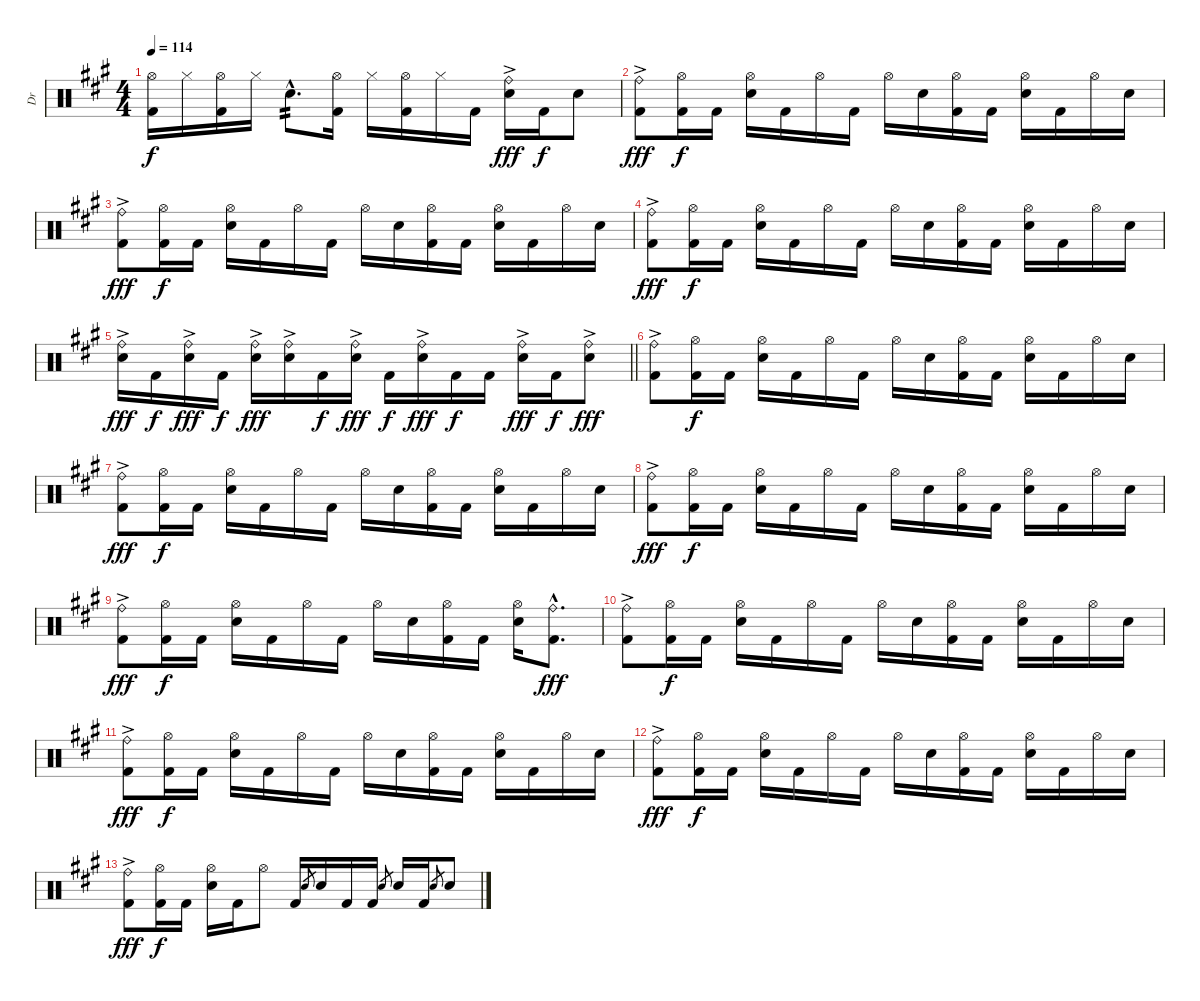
\track ("Dr" "Dr") {instrument percussion}
\staff {score}
\articulation defaults
\ts (4 4)
\tempo 114
\clef neutral
\ks a
("Hi-Hat (open)" "Kick (hit) 2").16{dy f} "Hi-Hat (closed)".16 ("Hi-Hat (open)" "Kick (hit) 2").16 "Hi-Hat (closed)".16 "Electric Snare (hit)"{hac}.8{d tp 2} ("Hi-Hat (open)" "Kick (hit) 2").16 "Hi-Hat (closed)".16 ("Hi-Hat (open)" "Kick (hit) 2").16 "Hi-Hat (closed)".16 "Kick (hit) 2".16 ("Ride (bell)"{ac} "Electric Snare (hit)"{ac}).16{dy fff} "Kick (hit) 2".16{dy f} "Electric Snare (hit)".8 |
("Ride (bell)"{ac} "Kick (hit) 2"{ac}).8{dy fff} ("Hi-Hat (open)" "Kick (hit) 2").16{dy f} "Kick (hit) 2".16 ("Hi-Hat (open)" "Electric Snare (hit)").16 "Kick (hit) 2".16 "Hi-Hat (open)".16 "Kick (hit) 2".16 "Hi-Hat (open)".16 "Electric Snare (hit)".16 ("Hi-Hat (open)" "Kick (hit) 2").16 "Kick (hit) 2".16 ("Hi-Hat (open)" "Electric Snare (hit)").16 "Kick (hit) 2".16 "Hi-Hat (open)".16 "Electric Snare (hit)".16 |
("Ride (bell)"{ac} "Kick (hit) 2"{ac}).8{dy fff} ("Hi-Hat (open)" "Kick (hit) 2").16{dy f} "Kick (hit) 2".16 ("Hi-Hat (open)" "Electric Snare (hit)").16 "Kick (hit) 2".16 "Hi-Hat (open)".16 "Kick (hit) 2".16 "Hi-Hat (open)".16 "Electric Snare (hit)".16 ("Hi-Hat (open)" "Kick (hit) 2").16 "Kick (hit) 2".16 ("Hi-Hat (open)" "Electric Snare (hit)").16 "Kick (hit) 2".16 "Hi-Hat (open)".16 "Electric Snare (hit)".16 |
("Ride (bell)"{ac} "Kick (hit) 2"{ac}).8{dy fff} ("Hi-Hat (open)" "Kick (hit) 2").16{dy f} "Kick (hit) 2".16 ("Hi-Hat (open)" "Electric Snare (hit)").16 "Kick (hit) 2".16 "Hi-Hat (open)".16 "Kick (hit) 2".16 "Hi-Hat (open)".16 "Electric Snare (hit)".16 ("Hi-Hat (open)" "Kick (hit) 2").16 "Kick (hit) 2".16 ("Hi-Hat (open)" "Electric Snare (hit)").16 "Kick (hit) 2".16 "Hi-Hat (open)".16 "Electric Snare (hit)".16 |
\barLineRight lightlight
("Ride (bell)"{ac} "Electric Snare (hit)"{ac}).16{dy fff} "Kick (hit) 2".16{dy f} ("Ride (bell)"{ac} "Electric Snare (hit)"{ac}).16{dy fff} "Kick (hit) 2".16{dy f} ("Ride (bell)"{ac} "Electric Snare (hit)"{ac}).16{dy fff} ("Ride (bell)"{ac} "Electric Snare (hit)"{ac}).16 "Kick (hit) 2".16{dy f} ("Ride (bell)"{ac} "Electric Snare (hit)"{ac}).16{dy fff} "Kick (hit) 2".16{dy f} ("Ride (bell)"{ac} "Electric Snare (hit)"{ac}).16{dy fff} "Kick (hit) 2".16{dy f} "Kick (hit) 2".16 ("Ride (bell)"{ac} "Electric Snare (hit)"{ac}).16{dy fff} "Kick (hit) 2".16{dy f} ("Ride (bell)"{ac} "Electric Snare (hit)"{ac}).8{dy fff} |
("Ride (bell)"{ac} "Kick (hit) 2"{ac}).8 ("Hi-Hat (open)" "Kick (hit) 2").16{dy f} "Kick (hit) 2".16 ("Hi-Hat (open)" "Electric Snare (hit)").16 "Kick (hit) 2".16 "Hi-Hat (open)".16 "Kick (hit) 2".16 "Hi-Hat (open)".16 "Electric Snare (hit)".16 ("Hi-Hat (open)" "Kick (hit) 2").16 "Kick (hit) 2".16 ("Hi-Hat (open)" "Electric Snare (hit)").16 "Kick (hit) 2".16 "Hi-Hat (open)".16 "Electric Snare (hit)".16 |
("Ride (bell)"{ac} "Kick (hit) 2"{ac}).8{dy fff} ("Hi-Hat (open)" "Kick (hit) 2").16{dy f} "Kick (hit) 2".16 ("Hi-Hat (open)" "Electric Snare (hit)").16 "Kick (hit) 2".16 "Hi-Hat (open)".16 "Kick (hit) 2".16 "Hi-Hat (open)".16 "Electric Snare (hit)".16 ("Hi-Hat (open)" "Kick (hit) 2").16 "Kick (hit) 2".16 ("Hi-Hat (open)" "Electric Snare (hit)").16 "Kick (hit) 2".16 "Hi-Hat (open)".16 "Electric Snare (hit)".16 |
("Ride (bell)"{ac} "Kick (hit) 2"{ac}).8{dy fff} ("Hi-Hat (open)" "Kick (hit) 2").16{dy f} "Kick (hit) 2".16 ("Hi-Hat (open)" "Electric Snare (hit)").16 "Kick (hit) 2".16 "Hi-Hat (open)".16 "Kick (hit) 2".16 "Hi-Hat (open)".16 "Electric Snare (hit)".16 ("Hi-Hat (open)" "Kick (hit) 2").16 "Kick (hit) 2".16 ("Hi-Hat (open)" "Electric Snare (hit)").16 "Kick (hit) 2".16 "Hi-Hat (open)".16 "Electric Snare (hit)".16 |
("Ride (bell)"{ac} "Kick (hit) 2"{ac}).8{dy fff} ("Hi-Hat (open)" "Kick (hit) 2").16{dy f} "Kick (hit) 2".16 ("Hi-Hat (open)" "Electric Snare (hit)").16 "Kick (hit) 2".16 "Hi-Hat (open)".16 "Kick (hit) 2".16 "Hi-Hat (open)".16 "Electric Snare (hit)".16 ("Hi-Hat (open)" "Kick (hit) 2").16 "Kick (hit) 2".16 ("Hi-Hat (open)" "Electric Snare (hit)").16 ("Ride (bell)"{hac} "Kick (hit) 2"{hac}).8{d dy fff} |
("Ride (bell)"{ac} "Kick (hit) 2"{ac}).8 ("Hi-Hat (open)" "Kick (hit) 2").16{dy f} "Kick (hit) 2".16 ("Hi-Hat (open)" "Electric Snare (hit)").16 "Kick (hit) 2".16 "Hi-Hat (open)".16 "Kick (hit) 2".16 "Hi-Hat (open)".16 "Electric Snare (hit)".16 ("Hi-Hat (open)" "Kick (hit) 2").16 "Kick (hit) 2".16 ("Hi-Hat (open)" "Electric Snare (hit)").16 "Kick (hit) 2".16 "Hi-Hat (open)".16 "Electric Snare (hit)".16 |
("Ride (bell)"{ac} "Kick (hit) 2"{ac}).8{dy fff} ("Hi-Hat (open)" "Kick (hit) 2").16{dy f} "Kick (hit) 2".16 ("Hi-Hat (open)" "Electric Snare (hit)").16 "Kick (hit) 2".16 "Hi-Hat (open)".16 "Kick (hit) 2".16 "Hi-Hat (open)".16 "Electric Snare (hit)".16 ("Hi-Hat (open)" "Kick (hit) 2").16 "Kick (hit) 2".16 ("Hi-Hat (open)" "Electric Snare (hit)").16 "Kick (hit) 2".16 "Hi-Hat (open)".16 "Electric Snare (hit)".16 |
("Ride (bell)"{ac} "Kick (hit) 2"{ac}).8{dy fff} ("Hi-Hat (open)" "Kick (hit) 2").16{dy f} "Kick (hit) 2".16 ("Hi-Hat (open)" "Electric Snare (hit)").16 "Kick (hit) 2".16 "Hi-Hat (open)".16 "Kick (hit) 2".16 "Hi-Hat (open)".16 "Electric Snare (hit)".16 ("Hi-Hat (open)" "Kick (hit) 2").16 "Kick (hit) 2".16 ("Hi-Hat (open)" "Electric Snare (hit)").16 "Kick (hit) 2".16 "Hi-Hat (open)".16 "Electric Snare (hit)".16 |
("Ride (bell)"{ac} "Kick (hit) 2"{ac}).8{dy fff} ("Hi-Hat (open)" "Kick (hit) 2").16{dy f} "Kick (hit) 2".16 ("Hi-Hat (open)" "Electric Snare (hit)").16 "Kick (hit) 2".16 "Hi-Hat (open)".8 "Kick (hit) 2".16 "Electric Snare (hit)".8{gr} "Electric Snare (hit)".16 "Kick (hit) 2".16 "Kick (hit) 2".16 "Electric Snare (hit)".8{gr} "Electric Snare (hit)".16 "Kick (hit) 2".16 "Electric Snare (hit)".8{gr} "Electric Snare (hit)".8
